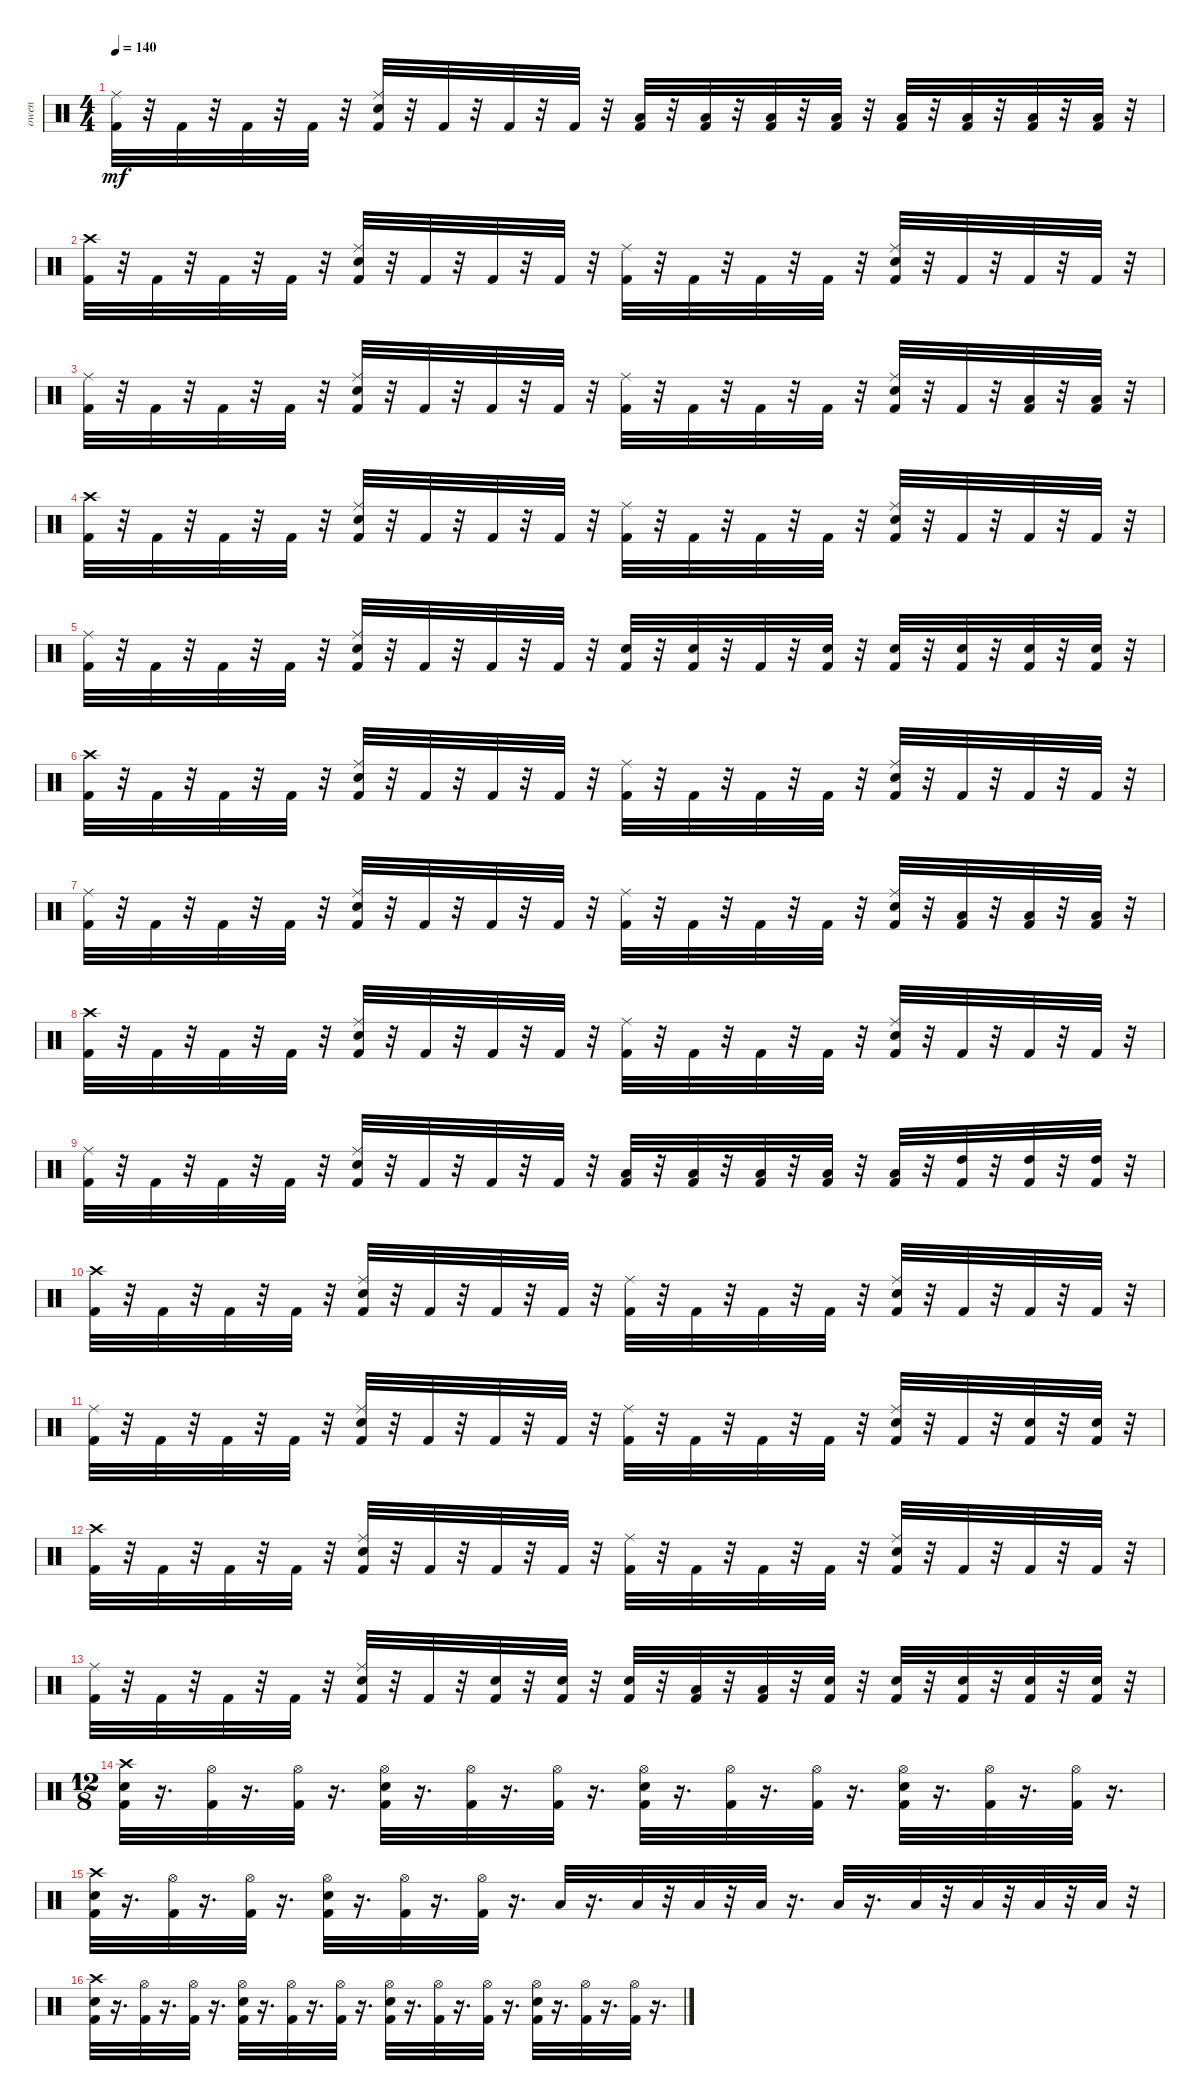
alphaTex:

\track ("owen" "owen") {instrument percussion}
\staff {score}
\articulation defaults
\ts (4 4)
\tempo 140
\clef neutral
\ks c
("Kick (hit) 2" "Ride (middle)").32{dy mf} r.32 "Kick (hit) 2".32 r.32 "Kick (hit) 2".32 r.32 "Kick (hit) 2".32 r.32 ("Kick (hit) 2" "Snare (hit) 2" "Ride (middle)").32 r.32 "Kick (hit) 2".32 r.32 "Kick (hit) 2".32 r.32 "Kick (hit) 2".32 r.32 ("Kick (hit) 2" "Low Tom (hit)").32 r.32 ("Kick (hit) 2" "Low Tom (hit)").32 r.32 ("Kick (hit) 2" "Low Tom (hit)").32 r.32 ("Kick (hit) 2" "Low Tom (hit)").32 r.32 ("Kick (hit) 2" "Low Tom (hit)").32 r.32 ("Kick (hit) 2" "Low Floor Tom (hit)").32 r.32 ("Kick (hit) 2" "Low Floor Tom (hit)").32 r.32 ("Kick (hit) 2" "Low Floor Tom (hit)").32 r.32 |
("Crash high (hit)" "Kick (hit) 2").32 r.32 "Kick (hit) 2".32 r.32 "Kick (hit) 2".32 r.32 "Kick (hit) 2".32 r.32 ("Kick (hit) 2" "Snare (hit) 2" "Ride (middle)").32 r.32 "Kick (hit) 2".32 r.32 "Kick (hit) 2".32 r.32 "Kick (hit) 2".32 r.32 ("Kick (hit) 2" "Ride (middle)").32 r.32 "Kick (hit) 2".32 r.32 "Kick (hit) 2".32 r.32 "Kick (hit) 2".32 r.32 ("Kick (hit) 2" "Snare (hit) 2" "Ride (middle)").32 r.32 "Kick (hit) 2".32 r.32 "Kick (hit) 2".32 r.32 "Kick (hit) 2".32 r.32 |
("Kick (hit) 2" "Ride (middle)").32 r.32 "Kick (hit) 2".32 r.32 "Kick (hit) 2".32 r.32 "Kick (hit) 2".32 r.32 ("Kick (hit) 2" "Snare (hit) 2" "Ride (middle)").32 r.32 "Kick (hit) 2".32 r.32 "Kick (hit) 2".32 r.32 "Kick (hit) 2".32 r.32 ("Kick (hit) 2" "Ride (middle)").32 r.32 "Kick (hit) 2".32 r.32 "Kick (hit) 2".32 r.32 "Kick (hit) 2".32 r.32 ("Kick (hit) 2" "Snare (hit) 2" "Ride (middle)").32 r.32 "Kick (hit) 2".32 r.32 ("Kick (hit) 2" "Low Floor Tom (hit)").32 r.32 ("Kick (hit) 2" "Low Floor Tom (hit)").32 r.32 |
("Kick (hit) 2" "Crash high (hit)").32 r.32 "Kick (hit) 2".32 r.32 "Kick (hit) 2".32 r.32 "Kick (hit) 2".32 r.32 ("Kick (hit) 2" "Snare (hit) 2" "Ride (middle)").32 r.32 "Kick (hit) 2".32 r.32 "Kick (hit) 2".32 r.32 "Kick (hit) 2".32 r.32 ("Kick (hit) 2" "Ride (middle)").32 r.32 "Kick (hit) 2".32 r.32 "Kick (hit) 2".32 r.32 "Kick (hit) 2".32 r.32 ("Kick (hit) 2" "Snare (hit) 2" "Ride (middle)").32 r.32 "Kick (hit) 2".32 r.32 "Kick (hit) 2".32 r.32 "Kick (hit) 2".32 r.32 |
("Kick (hit) 2" "Ride (middle)").32 r.32 "Kick (hit) 2".32 r.32 "Kick (hit) 2".32 r.32 "Kick (hit) 2".32 r.32 ("Kick (hit) 2" "Snare (hit) 2" "Ride (middle)").32 r.32 "Kick (hit) 2".32 r.32 "Kick (hit) 2".32 r.32 "Kick (hit) 2".32 r.32 ("Kick (hit) 2" "Snare (hit) 2").32 r.32 ("Kick (hit) 2" "Snare (hit) 2").32 r.32 "Kick (hit) 2".32 r.32 ("Kick (hit) 2" "Snare (hit) 2").32 r.32 ("Kick (hit) 2" "Snare (hit) 2").32 r.32 ("Kick (hit) 2" "Snare (hit) 2").32 r.32 ("Kick (hit) 2" "Snare (hit) 2").32 r.32 ("Kick (hit) 2" "Snare (hit) 2").32 r.32 |
("Crash high (hit)" "Kick (hit) 2").32 r.32 "Kick (hit) 2".32 r.32 "Kick (hit) 2".32 r.32 "Kick (hit) 2".32 r.32 ("Kick (hit) 2" "Snare (hit) 2" "Ride (middle)").32 r.32 "Kick (hit) 2".32 r.32 "Kick (hit) 2".32 r.32 "Kick (hit) 2".32 r.32 ("Kick (hit) 2" "Ride (middle)").32 r.32 "Kick (hit) 2".32 r.32 "Kick (hit) 2".32 r.32 "Kick (hit) 2".32 r.32 ("Kick (hit) 2" "Snare (hit) 2" "Ride (middle)").32 r.32 "Kick (hit) 2".32 r.32 "Kick (hit) 2".32 r.32 "Kick (hit) 2".32 r.32 |
("Kick (hit) 2" "Ride (middle)").32 r.32 "Kick (hit) 2".32 r.32 "Kick (hit) 2".32 r.32 "Kick (hit) 2".32 r.32 ("Kick (hit) 2" "Snare (hit) 2" "Ride (middle)").32 r.32 "Kick (hit) 2".32 r.32 "Kick (hit) 2".32 r.32 "Kick (hit) 2".32 r.32 ("Kick (hit) 2" "Ride (middle)").32 r.32 "Kick (hit) 2".32 r.32 "Kick (hit) 2".32 r.32 "Kick (hit) 2".32 r.32 ("Kick (hit) 2" "Snare (hit) 2" "Ride (middle)").32 r.32 ("Kick (hit) 2" "Low Tom (hit)").32 r.32 ("Kick (hit) 2" "Low Tom (hit)").32 r.32 ("Kick (hit) 2" "Low Tom (hit)").32 r.32 |
("Kick (hit) 2" "Crash high (hit)").32 r.32 "Kick (hit) 2".32 r.32 "Kick (hit) 2".32 r.32 "Kick (hit) 2".32 r.32 ("Kick (hit) 2" "Snare (hit) 2" "Ride (middle)").32 r.32 "Kick (hit) 2".32 r.32 "Kick (hit) 2".32 r.32 "Kick (hit) 2".32 r.32 ("Kick (hit) 2" "Ride (middle)").32 r.32 "Kick (hit) 2".32 r.32 "Kick (hit) 2".32 r.32 "Kick (hit) 2".32 r.32 ("Kick (hit) 2" "Snare (hit) 2" "Ride (middle)").32 r.32 "Kick (hit) 2".32 r.32 "Kick (hit) 2".32 r.32 "Kick (hit) 2".32 r.32 |
("Kick (hit) 2" "Ride (middle)").32 r.32 "Kick (hit) 2".32 r.32 "Kick (hit) 2".32 r.32 "Kick (hit) 2".32 r.32 ("Kick (hit) 2" "Snare (hit) 2" "Ride (middle)").32 r.32 "Kick (hit) 2".32 r.32 "Kick (hit) 2".32 r.32 "Kick (hit) 2".32 r.32 ("Kick (hit) 2" "Low Tom (hit)").32 r.32 ("Kick (hit) 2" "Low Tom (hit)").32 r.32 ("Kick (hit) 2" "Low Tom (hit)").32 r.32 ("Kick (hit) 2" "Low Tom (hit)").32 r.32 ("Kick (hit) 2" "Low Tom (hit)").32 r.32 ("Kick (hit) 2" "High Tom (hit)").32 r.32 ("Kick (hit) 2" "High Tom (hit)").32 r.32 ("Kick (hit) 2" "High Tom (hit)").32 r.32 |
("Crash high (hit)" "Kick (hit) 2").32 r.32 "Kick (hit) 2".32 r.32 "Kick (hit) 2".32 r.32 "Kick (hit) 2".32 r.32 ("Kick (hit) 2" "Snare (hit) 2" "Ride (middle)").32 r.32 "Kick (hit) 2".32 r.32 "Kick (hit) 2".32 r.32 "Kick (hit) 2".32 r.32 ("Kick (hit) 2" "Ride (middle)").32 r.32 "Kick (hit) 2".32 r.32 "Kick (hit) 2".32 r.32 "Kick (hit) 2".32 r.32 ("Kick (hit) 2" "Snare (hit) 2" "Ride (middle)").32 r.32 "Kick (hit) 2".32 r.32 "Kick (hit) 2".32 r.32 "Kick (hit) 2".32 r.32 |
("Kick (hit) 2" "Ride (middle)").32 r.32 "Kick (hit) 2".32 r.32 "Kick (hit) 2".32 r.32 "Kick (hit) 2".32 r.32 ("Kick (hit) 2" "Snare (hit) 2" "Ride (middle)").32 r.32 "Kick (hit) 2".32 r.32 "Kick (hit) 2".32 r.32 "Kick (hit) 2".32 r.32 ("Kick (hit) 2" "Ride (middle)").32 r.32 "Kick (hit) 2".32 r.32 "Kick (hit) 2".32 r.32 "Kick (hit) 2".32 r.32 ("Kick (hit) 2" "Snare (hit) 2" "Ride (middle)").32 r.32 "Kick (hit) 2".32 r.32 ("Kick (hit) 2" "Snare (hit) 2").32 r.32 ("Kick (hit) 2" "Snare (hit) 2").32 r.32 |
("Kick (hit) 2" "Crash high (hit)").32 r.32 "Kick (hit) 2".32 r.32 "Kick (hit) 2".32 r.32 "Kick (hit) 2".32 r.32 ("Kick (hit) 2" "Snare (hit) 2" "Ride (middle)").32 r.32 "Kick (hit) 2".32 r.32 "Kick (hit) 2".32 r.32 "Kick (hit) 2".32 r.32 ("Kick (hit) 2" "Ride (middle)").32 r.32 "Kick (hit) 2".32 r.32 "Kick (hit) 2".32 r.32 "Kick (hit) 2".32 r.32 ("Kick (hit) 2" "Snare (hit) 2" "Ride (middle)").32 r.32 "Kick (hit) 2".32 r.32 "Kick (hit) 2".32 r.32 "Kick (hit) 2".32 r.32 |
("Kick (hit) 2" "Ride (middle)").32 r.32 "Kick (hit) 2".32 r.32 "Kick (hit) 2".32 r.32 "Kick (hit) 2".32 r.32 ("Kick (hit) 2" "Snare (hit) 2" "Ride (middle)").32 r.32 "Kick (hit) 2".32 r.32 ("Kick (hit) 2" "Snare (hit) 2").32 r.32 ("Kick (hit) 2" "Snare (hit) 2").32 r.32 ("Kick (hit) 2" "Snare (hit) 2").32 r.32 ("Kick (hit) 2" "Low Floor Tom (hit)").32 r.32 ("Kick (hit) 2" "Low Floor Tom (hit)").32 r.32 ("Kick (hit) 2" "Snare (hit) 2").32 r.32 ("Kick (hit) 2" "Snare (hit) 2").32 r.32 ("Kick (hit) 2" "Snare (hit) 2").32 r.32 ("Kick (hit) 2" "Snare (hit) 2").32 r.32 ("Kick (hit) 2" "Snare (hit) 2").32 r.32 |
\ts (12 8)
("Kick (hit) 2" "Snare (hit) 2" "Crash high (hit)").32 r.16{d} ("Kick (hit) 2" "Hi-Hat (open)").32 r.16{d} ("Kick (hit) 2" "Hi-Hat (open)").32 r.16{d} ("Kick (hit) 2" "Snare (hit) 2" "Hi-Hat (open)").32 r.16{d} ("Kick (hit) 2" "Hi-Hat (open)").32 r.16{d} ("Kick (hit) 2" "Hi-Hat (open)").32 r.16{d} ("Kick (hit) 2" "Snare (hit) 2" "Hi-Hat (open)").32 r.16{d} ("Kick (hit) 2" "Hi-Hat (open)").32 r.16{d} ("Kick (hit) 2" "Hi-Hat (open)").32 r.16{d} ("Kick (hit) 2" "Snare (hit) 2" "Hi-Hat (open)").32 r.16{d} ("Kick (hit) 2" "Hi-Hat (open)").32 r.16{d} ("Kick (hit) 2" "Hi-Hat (open)").32 r.16{d} |
("Kick (hit) 2" "Snare (hit) 2" "Crash high (hit)").32 r.16{d} ("Kick (hit) 2" "Hi-Hat (open)").32 r.16{d} ("Kick (hit) 2" "Hi-Hat (open)").32 r.16{d} ("Kick (hit) 2" "Snare (hit) 2" "Hi-Hat (open)").32 r.16{d} ("Kick (hit) 2" "Hi-Hat (open)").32 r.16{d} ("Kick (hit) 2" "Hi-Hat (open)").32 r.16{d} "Low Tom (hit)".32 r.16{d} "Low Tom (hit)".32 r.32 "Low Tom (hit)".32 r.32 "Low Tom (hit)".32 r.16{d} "Low Floor Tom (hit)".32 r.16{d} "Low Floor Tom (hit)".32 r.32 "Low Floor Tom (hit)".32 r.32 "Low Floor Tom (hit)".32 r.32 "Low Floor Tom (hit)".32 r.32 |
("Kick (hit) 2" "Snare (hit) 2" "Crash high (hit)").32 r.16{d} ("Kick (hit) 2" "Hi-Hat (open)").32 r.16{d} ("Kick (hit) 2" "Hi-Hat (open)").32 r.16{d} ("Kick (hit) 2" "Snare (hit) 2" "Hi-Hat (open)").32 r.16{d} ("Kick (hit) 2" "Hi-Hat (open)").32 r.16{d} ("Kick (hit) 2" "Hi-Hat (open)").32 r.16{d} ("Kick (hit) 2" "Snare (hit) 2" "Hi-Hat (open)").32 r.16{d} ("Kick (hit) 2" "Hi-Hat (open)").32 r.16{d} ("Kick (hit) 2" "Hi-Hat (open)").32 r.16{d} ("Kick (hit) 2" "Snare (hit) 2" "Hi-Hat (open)").32 r.16{d} ("Kick (hit) 2" "Hi-Hat (open)").32 r.16{d} ("Kick (hit) 2" "Hi-Hat (open)").32 r.16{d}
